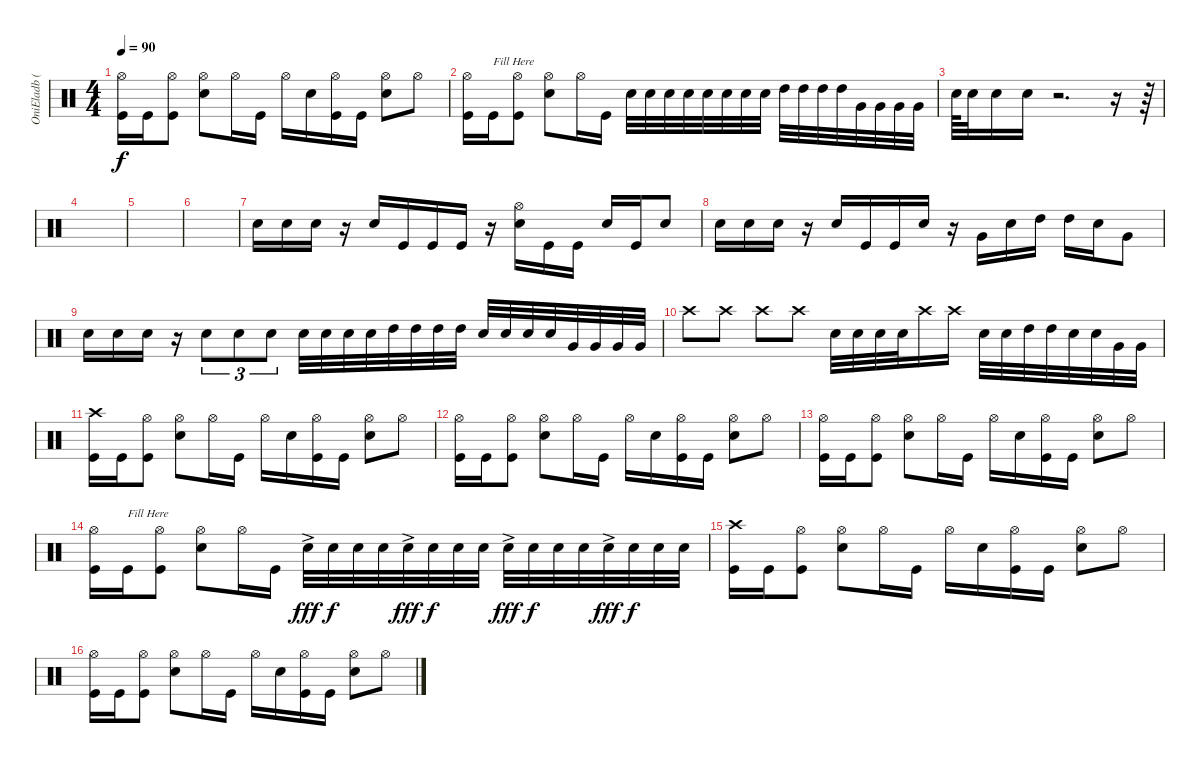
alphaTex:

\track ("OniEladb (Battérie)" "OniEladb (") {instrument percussion}
\staff {score}
\articulation defaults
\ts (4 4)
\tempo 90
\clef neutral
\ks c
("Hi-Hat (open)" "Kick (hit)").16{dy f} "Kick (hit)".16 ("Hi-Hat (open)" "Kick (hit)").8 ("Hi-Hat (open)" "Snare (hit) 2").8 "Hi-Hat (open)".16 "Kick (hit)".16 "Hi-Hat (open)".16 "Snare (hit) 2".16 ("Hi-Hat (open)" "Kick (hit)").16 "Kick (hit)".16 ("Hi-Hat (open)" "Snare (hit) 2").8 "Hi-Hat (open)".8 |
("Hi-Hat (open)" "Kick (hit)").16 "Kick (hit)".16{txt "Fill Here"} ("Hi-Hat (open)" "Kick (hit)").8 ("Hi-Hat (open)" "Snare (hit) 2").8 "Hi-Hat (open)".16 "Kick (hit)".16 "Snare (hit) 2".32 "Snare (hit) 2".32 "Snare (hit) 2".32 "Snare (hit) 2".32 "Snare (hit) 2".32 "Snare (hit) 2".32 "Snare (hit) 2".32 "Snare (hit) 2".32 "High Tom (hit)".32 "High Tom (hit)".32 "High Tom (hit)".32 "High Tom (hit)".32 "Very Low Tom (hit)".32 "Very Low Tom (hit)".32 "Very Low Tom (hit)".32 "Very Low Tom (hit)".32 |
"Snare (hit) 2".64 "Snare (hit) 2".32 "Snare (hit) 2".16 "Snare (hit) 2".16 r.2{d} r.16 r.64 |
|
|
|
"Snare (hit) 2".16 "Snare (hit) 2".16 "Snare (hit) 2".16 r.16 "Snare (hit) 2".16 "Kick (hit)".16 "Kick (hit)".16 "Kick (hit)".16 r.16 ("Hi-Hat (open)" "Snare (hit) 2").16 "Kick (hit)".16 "Kick (hit)".16 "Snare (hit) 2".16 "Kick (hit)".16 "Snare (hit) 2".8 |
"Snare (hit) 2".16 "Snare (hit) 2".16 "Snare (hit) 2".16 r.16 "Snare (hit) 2".16 "Kick (hit)".16 "Kick (hit)".16 "Snare (hit) 2".16 r.16 "Very Low Tom (hit)".16 "Snare (hit) 2".16 "High Tom (hit)".16 "High Tom (hit)".16 "Snare (hit) 2".16 "Very Low Tom (hit)".8 |
"Snare (hit) 2".16 "Snare (hit) 2".16 "Snare (hit) 2".16 r.16 "Snare (hit) 2".8{tu (3 2)} "Snare (hit) 2".8{tu (3 2)} "Snare (hit) 2".8{tu (3 2)} "Snare (hit) 2".32 "Snare (hit) 2".32 "Snare (hit) 2".32 "Snare (hit) 2".32 "High Tom (hit)".32 "High Tom (hit)".32 "High Tom (hit)".32 "High Tom (hit)".32 "Snare (hit) 2".32 "Snare (hit) 2".32 "Snare (hit) 2".32 "Snare (hit) 2".32 "Very Low Tom (hit)".32 "Very Low Tom (hit)".32 "Very Low Tom (hit)".32 "Very Low Tom (hit)".32 |
"Crash high (hit)".8 "Crash high (hit)".8 "Crash high (hit)".8 "Crash high (hit)".8 "Snare (hit) 2".32 "Snare (hit) 2".32 "Snare (hit) 2".32 "Snare (hit) 2".32 "Crash high (hit)".16 "Crash high (hit)".16 "Snare (hit) 2".32 "Snare (hit) 2".32 "High Tom (hit)".32 "High Tom (hit)".32 "Snare (hit) 2".32 "Snare (hit) 2".32 "Very Low Tom (hit)".32 "Very Low Tom (hit)".32 |
("Crash high (hit)" "Kick (hit)").16 "Kick (hit)".16 ("Hi-Hat (open)" "Kick (hit)").8 ("Hi-Hat (open)" "Snare (hit) 2").8 "Hi-Hat (open)".16 "Kick (hit)".16 "Hi-Hat (open)".16 "Snare (hit) 2".16 ("Hi-Hat (open)" "Kick (hit)").16 "Kick (hit)".16 ("Hi-Hat (open)" "Snare (hit) 2").8 "Hi-Hat (open)".8 |
("Hi-Hat (open)" "Kick (hit)").16 "Kick (hit)".16 ("Hi-Hat (open)" "Kick (hit)").8 ("Hi-Hat (open)" "Snare (hit) 2").8 "Hi-Hat (open)".16 "Kick (hit)".16 "Hi-Hat (open)".16 "Snare (hit) 2".16 ("Hi-Hat (open)" "Kick (hit)").16 "Kick (hit)".16 ("Hi-Hat (open)" "Snare (hit) 2").8 "Hi-Hat (open)".8 |
("Hi-Hat (open)" "Kick (hit)").16 "Kick (hit)".16 ("Hi-Hat (open)" "Kick (hit)").8 ("Hi-Hat (open)" "Snare (hit) 2").8 "Hi-Hat (open)".16 "Kick (hit)".16 "Hi-Hat (open)".16 "Snare (hit) 2".16 ("Hi-Hat (open)" "Kick (hit)").16 "Kick (hit)".16 ("Hi-Hat (open)" "Snare (hit) 2").8 "Hi-Hat (open)".8 |
("Hi-Hat (open)" "Kick (hit)").16 "Kick (hit)".16{txt "Fill Here"} ("Hi-Hat (open)" "Kick (hit)").8 ("Hi-Hat (open)" "Snare (hit) 2").8 "Hi-Hat (open)".16 "Kick (hit)".16 "Snare (hit) 2"{ac}.32{dy fff} "Snare (hit) 2".32{dy f} "Snare (hit) 2".32 "Snare (hit) 2".32 "Snare (hit) 2"{ac}.32{dy fff} "Snare (hit) 2".32{dy f} "Snare (hit) 2".32 "Snare (hit) 2".32 "Snare (hit) 2"{ac}.32{dy fff} "Snare (hit) 2".32{dy f} "Snare (hit) 2".32 "Snare (hit) 2".32 "Snare (hit) 2"{ac}.32{dy fff} "Snare (hit) 2".32{dy f} "Snare (hit) 2".32 "Snare (hit) 2".32 |
("Crash high (hit)" "Kick (hit)").16 "Kick (hit)".16 ("Hi-Hat (open)" "Kick (hit)").8 ("Hi-Hat (open)" "Snare (hit) 2").8 "Hi-Hat (open)".16 "Kick (hit)".16 "Hi-Hat (open)".16 "Snare (hit) 2".16 ("Hi-Hat (open)" "Kick (hit)").16 "Kick (hit)".16 ("Hi-Hat (open)" "Snare (hit) 2").8 "Hi-Hat (open)".8 |
("Hi-Hat (open)" "Kick (hit)").16 "Kick (hit)".16 ("Hi-Hat (open)" "Kick (hit)").8 ("Hi-Hat (open)" "Snare (hit) 2").8 "Hi-Hat (open)".16 "Kick (hit)".16 "Hi-Hat (open)".16 "Snare (hit) 2".16 ("Hi-Hat (open)" "Kick (hit)").16 "Kick (hit)".16 ("Hi-Hat (open)" "Snare (hit) 2").8 "Hi-Hat (open)".8
